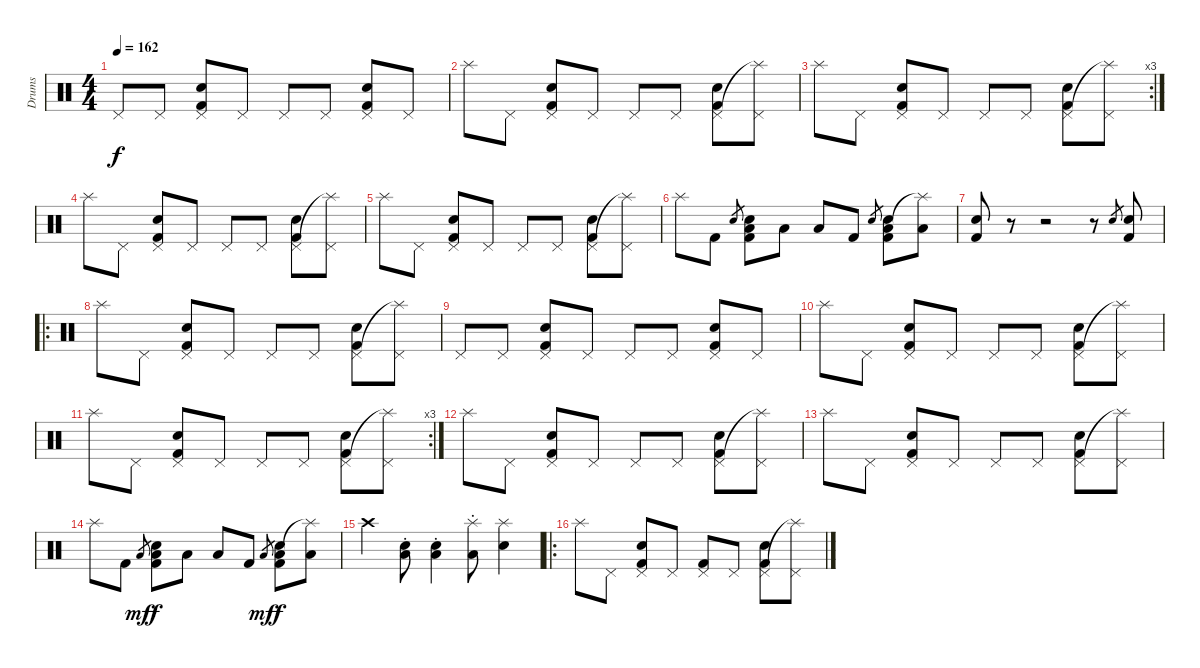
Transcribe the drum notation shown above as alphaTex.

\track ("Drums" "Drums") {instrument percussion}
\staff {score}
\articulation defaults
\ts (4 4)
\tempo 162
\clef neutral
\ks c "Pedal Hi-Hat (hit)".8{dy f} "Pedal Hi-Hat (hit)".8
("Pedal Hi-Hat (hit)" "Snare (hit) 2" "Kick (hit) 2").8 "Pedal Hi-Hat (hit)".8 "Pedal Hi-Hat (hit)".8 "Pedal Hi-Hat (hit)".8 ("Pedal Hi-Hat (hit)" "Snare (hit) 2" "Kick (hit) 2").8 "Pedal Hi-Hat (hit)".8 |
"Splash (hit)".8 "Pedal Hi-Hat (hit)".8 ("Pedal Hi-Hat (hit)" "Snare (hit) 2" "Kick (hit) 2").8 "Pedal Hi-Hat (hit)".8 "Pedal Hi-Hat (hit)".8 "Pedal Hi-Hat (hit)".8 ("Pedal Hi-Hat (hit)" "Snare (hit) 2" "Kick (hit) 2").8 ("Splash (hit)"{t} "Pedal Hi-Hat (hit)").8 |
\rc 3 "Splash (hit)".8 "Pedal Hi-Hat (hit)".8
("Pedal Hi-Hat (hit)" "Snare (hit) 2" "Kick (hit) 2").8 "Pedal Hi-Hat (hit)".8 "Pedal Hi-Hat (hit)".8 "Pedal Hi-Hat (hit)".8 ("Pedal Hi-Hat (hit)" "Snare (hit) 2" "Kick (hit) 2").8 ("Splash (hit)"{t} "Pedal Hi-Hat (hit)").8 |
"Splash (hit)".8 "Pedal Hi-Hat (hit)".8 ("Pedal Hi-Hat (hit)" "Snare (hit) 2" "Kick (hit) 2").8 "Pedal Hi-Hat (hit)".8 "Pedal Hi-Hat (hit)".8 "Pedal Hi-Hat (hit)".8 ("Pedal Hi-Hat (hit)" "Snare (hit) 2" "Kick (hit) 2").8 ("Splash (hit)"{t} "Pedal Hi-Hat (hit)").8 |
"Splash (hit)".8 "Pedal Hi-Hat (hit)".8 ("Pedal Hi-Hat (hit)" "Snare (hit) 2" "Kick (hit) 2").8 "Pedal Hi-Hat (hit)".8 "Pedal Hi-Hat (hit)".8 "Pedal Hi-Hat (hit)".8 ("Pedal Hi-Hat (hit)" "Snare (hit) 2" "Kick (hit) 2").8 ("Splash (hit)"{t} "Pedal Hi-Hat (hit)").8 |
"Splash (hit)".8 "Kick (hit) 2".8 "Snare (hit) 2".8{gr} ("Low Tom (hit)" "Snare (hit) 2" "Kick (hit) 2").8 "Low Tom (hit)".8 "Low Tom (hit)".8 "Kick (hit) 2".8 "Snare (hit) 2".8{gr} ("Low Tom (hit)" "Snare (hit) 2" "Kick (hit) 2").8 ("Splash (hit)"{t} "Low Tom (hit)").8 |
("Snare (hit) 2" "Kick (hit) 2").8 r.8 r.2 r.8 "Snare (hit) 2".8{gr} ("Snare (hit) 2" "Kick (hit) 2").8 |
\ro "Splash (hit)".8 "Pedal Hi-Hat (hit)".8
("Pedal Hi-Hat (hit)" "Snare (hit) 2" "Kick (hit) 2").8 "Pedal Hi-Hat (hit)".8 "Pedal Hi-Hat (hit)".8 "Pedal Hi-Hat (hit)".8 ("Pedal Hi-Hat (hit)" "Snare (hit) 2" "Kick (hit) 2").8 ("Splash (hit)"{t} "Pedal Hi-Hat (hit)").8 |
"Pedal Hi-Hat (hit)".8 "Pedal Hi-Hat (hit)".8 ("Pedal Hi-Hat (hit)" "Snare (hit) 2" "Kick (hit) 2").8 "Pedal Hi-Hat (hit)".8 "Pedal Hi-Hat (hit)".8 "Pedal Hi-Hat (hit)".8 ("Pedal Hi-Hat (hit)" "Snare (hit) 2" "Kick (hit) 2").8 "Pedal Hi-Hat (hit)".8 |
"Splash (hit)".8 "Pedal Hi-Hat (hit)".8 ("Pedal Hi-Hat (hit)" "Snare (hit) 2" "Kick (hit) 2").8 "Pedal Hi-Hat (hit)".8 "Pedal Hi-Hat (hit)".8 "Pedal Hi-Hat (hit)".8 ("Pedal Hi-Hat (hit)" "Snare (hit) 2" "Kick (hit) 2").8 ("Splash (hit)"{t} "Pedal Hi-Hat (hit)").8 |
\rc 3 "Splash (hit)".8 "Pedal Hi-Hat (hit)".8
("Pedal Hi-Hat (hit)" "Snare (hit) 2" "Kick (hit) 2").8 "Pedal Hi-Hat (hit)".8 "Pedal Hi-Hat (hit)".8 "Pedal Hi-Hat (hit)".8 ("Pedal Hi-Hat (hit)" "Snare (hit) 2" "Kick (hit) 2").8 ("Splash (hit)"{t} "Pedal Hi-Hat (hit)").8 |
"Splash (hit)".8 "Pedal Hi-Hat (hit)".8 ("Pedal Hi-Hat (hit)" "Snare (hit) 2" "Kick (hit) 2").8 "Pedal Hi-Hat (hit)".8 "Pedal Hi-Hat (hit)".8 "Pedal Hi-Hat (hit)".8 ("Pedal Hi-Hat (hit)" "Snare (hit) 2" "Kick (hit) 2").8 ("Splash (hit)"{t} "Pedal Hi-Hat (hit)").8 |
"Splash (hit)".8 "Pedal Hi-Hat (hit)".8 ("Pedal Hi-Hat (hit)" "Snare (hit) 2" "Kick (hit) 2").8 "Pedal Hi-Hat (hit)".8 "Pedal Hi-Hat (hit)".8 "Pedal Hi-Hat (hit)".8 ("Pedal Hi-Hat (hit)" "Snare (hit) 2" "Kick (hit) 2").8 ("Splash (hit)"{t} "Pedal Hi-Hat (hit)").8 |
"Splash (hit)".8 "Kick (hit) 2".8 "Low Tom (hit)".8{gr dy mf} ("Low Tom (hit)" "Snare (hit) 2" "Kick (hit) 2").8{dy f} "Low Tom (hit)".8 "Low Tom (hit)".8 "Kick (hit) 2".8 "Low Tom (hit)".8{gr dy mf} ("Low Tom (hit)" "Snare (hit) 2" "Kick (hit) 2").8{dy f} ("Splash (hit)"{t} "Low Tom (hit)").8 |
"Crash high (hit)".4 ("Low Floor Tom (hit)"{st} "Snare (hit) 2").8 ("Low Tom (hit)"{st} "Snare (hit) 2").4 ("Splash (hit)" "Low Floor Tom (hit)"{st}).8 ("Splash (hit)" "Snare (hit) 2").4 |
\ro "Splash (hit)".8 "Pedal Hi-Hat (hit)".8
("Pedal Hi-Hat (hit)" "Snare (hit) 2" "Kick (hit) 2").8 "Pedal Hi-Hat (hit)".8 ("Pedal Hi-Hat (hit)" "Kick (hit) 2").8 "Pedal Hi-Hat (hit)".8 ("Pedal Hi-Hat (hit)" "Snare (hit) 2" "Kick (hit) 2").8 ("Splash (hit)"{t} "Pedal Hi-Hat (hit)").8
